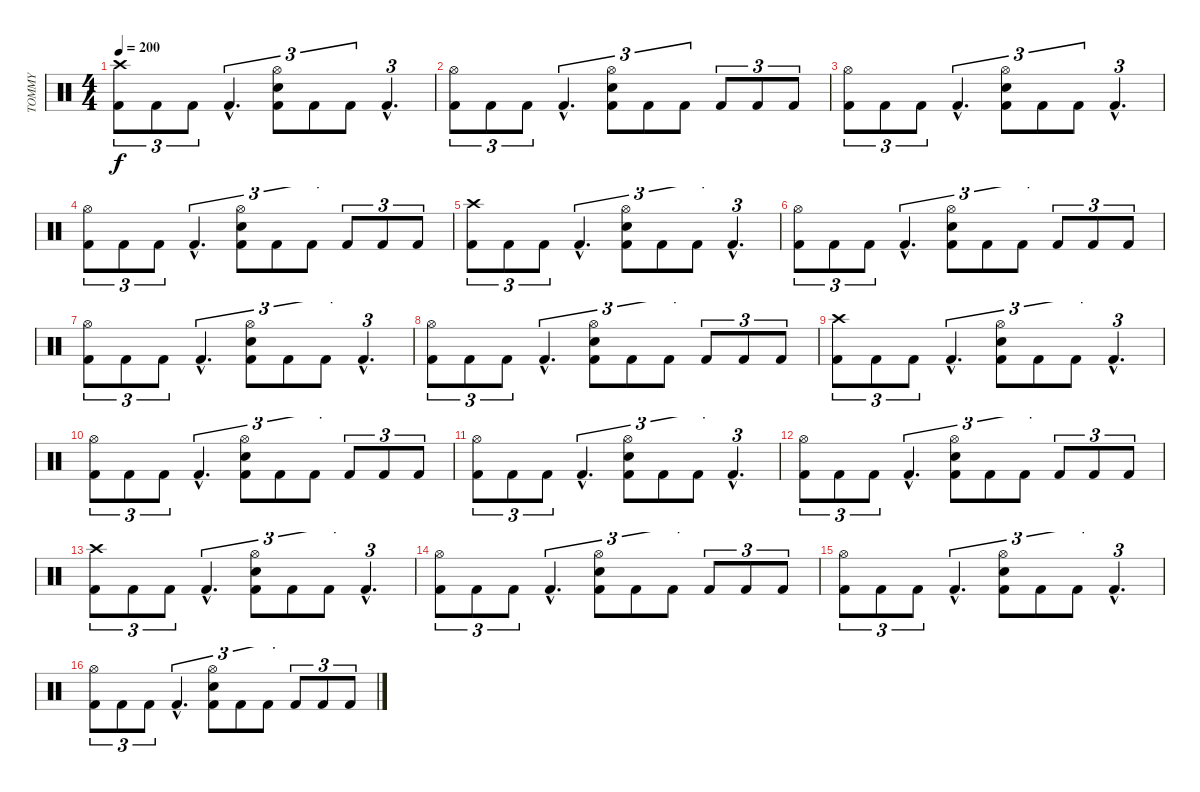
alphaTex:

\track ("TOMMY" "TOMMY") {instrument percussion}
\staff {score}
\articulation defaults
\ts (4 4)
\tempo 200
\clef neutral
\ks c
("Kick (hit) 2" "Crash high (hit)").8{tu (3 2) dy f} "Kick (hit) 2".8{tu (3 2)} "Kick (hit) 2".8{tu (3 2)} "Kick (hit) 2"{hac}.4{d tu (3 2)} ("Snare (hit) 2" "Kick (hit) 2" "Hi-Hat (open)").8{tu (3 2)} "Kick (hit) 2".8{tu (3 2)} "Kick (hit) 2".8{tu (3 2)} "Kick (hit) 2"{hac}.4{d tu (3 2)} |
("Kick (hit) 2" "Hi-Hat (open)").8{tu (3 2)} "Kick (hit) 2".8{tu (3 2)} "Kick (hit) 2".8{tu (3 2)} "Kick (hit) 2"{hac}.4{d tu (3 2)} ("Snare (hit) 2" "Kick (hit) 2" "Hi-Hat (open)").8{tu (3 2)} "Kick (hit) 2".8{tu (3 2)} "Kick (hit) 2".8{tu (3 2)} "Kick (hit) 2".8{tu (3 2)} "Kick (hit) 2".8{tu (3 2)} "Kick (hit) 2".8{tu (3 2)} |
("Kick (hit) 2" "Hi-Hat (open)").8{tu (3 2)} "Kick (hit) 2".8{tu (3 2)} "Kick (hit) 2".8{tu (3 2)} "Kick (hit) 2"{hac}.4{d tu (3 2)} ("Snare (hit) 2" "Kick (hit) 2" "Hi-Hat (open)").8{tu (3 2)} "Kick (hit) 2".8{tu (3 2)} "Kick (hit) 2".8{tu (3 2)} "Kick (hit) 2"{hac}.4{d tu (3 2)} |
("Kick (hit) 2" "Hi-Hat (open)").8{tu (3 2)} "Kick (hit) 2".8{tu (3 2)} "Kick (hit) 2".8{tu (3 2)} "Kick (hit) 2"{hac}.4{d tu (3 2)} ("Snare (hit) 2" "Kick (hit) 2" "Hi-Hat (open)").8{tu (3 2)} "Kick (hit) 2".8{tu (3 2)} "Kick (hit) 2".8{tu (3 2)} "Kick (hit) 2".8{tu (3 2)} "Kick (hit) 2".8{tu (3 2)} "Kick (hit) 2".8{tu (3 2)} |
("Kick (hit) 2" "Crash high (hit)").8{tu (3 2)} "Kick (hit) 2".8{tu (3 2)} "Kick (hit) 2".8{tu (3 2)} "Kick (hit) 2"{hac}.4{d tu (3 2)} ("Snare (hit) 2" "Kick (hit) 2" "Hi-Hat (open)").8{tu (3 2)} "Kick (hit) 2".8{tu (3 2)} "Kick (hit) 2".8{tu (3 2)} "Kick (hit) 2"{hac}.4{d tu (3 2)} |
("Kick (hit) 2" "Hi-Hat (open)").8{tu (3 2)} "Kick (hit) 2".8{tu (3 2)} "Kick (hit) 2".8{tu (3 2)} "Kick (hit) 2"{hac}.4{d tu (3 2)} ("Snare (hit) 2" "Kick (hit) 2" "Hi-Hat (open)").8{tu (3 2)} "Kick (hit) 2".8{tu (3 2)} "Kick (hit) 2".8{tu (3 2)} "Kick (hit) 2".8{tu (3 2)} "Kick (hit) 2".8{tu (3 2)} "Kick (hit) 2".8{tu (3 2)} |
("Kick (hit) 2" "Hi-Hat (open)").8{tu (3 2)} "Kick (hit) 2".8{tu (3 2)} "Kick (hit) 2".8{tu (3 2)} "Kick (hit) 2"{hac}.4{d tu (3 2)} ("Snare (hit) 2" "Kick (hit) 2" "Hi-Hat (open)").8{tu (3 2)} "Kick (hit) 2".8{tu (3 2)} "Kick (hit) 2".8{tu (3 2)} "Kick (hit) 2"{hac}.4{d tu (3 2)} |
("Kick (hit) 2" "Hi-Hat (open)").8{tu (3 2)} "Kick (hit) 2".8{tu (3 2)} "Kick (hit) 2".8{tu (3 2)} "Kick (hit) 2"{hac}.4{d tu (3 2)} ("Snare (hit) 2" "Kick (hit) 2" "Hi-Hat (open)").8{tu (3 2)} "Kick (hit) 2".8{tu (3 2)} "Kick (hit) 2".8{tu (3 2)} "Kick (hit) 2".8{tu (3 2)} "Kick (hit) 2".8{tu (3 2)} "Kick (hit) 2".8{tu (3 2)} |
("Kick (hit) 2" "Crash high (hit)").8{tu (3 2)} "Kick (hit) 2".8{tu (3 2)} "Kick (hit) 2".8{tu (3 2)} "Kick (hit) 2"{hac}.4{d tu (3 2)} ("Snare (hit) 2" "Kick (hit) 2" "Hi-Hat (open)").8{tu (3 2)} "Kick (hit) 2".8{tu (3 2)} "Kick (hit) 2".8{tu (3 2)} "Kick (hit) 2"{hac}.4{d tu (3 2)} |
("Kick (hit) 2" "Hi-Hat (open)").8{tu (3 2)} "Kick (hit) 2".8{tu (3 2)} "Kick (hit) 2".8{tu (3 2)} "Kick (hit) 2"{hac}.4{d tu (3 2)} ("Snare (hit) 2" "Kick (hit) 2" "Hi-Hat (open)").8{tu (3 2)} "Kick (hit) 2".8{tu (3 2)} "Kick (hit) 2".8{tu (3 2)} "Kick (hit) 2".8{tu (3 2)} "Kick (hit) 2".8{tu (3 2)} "Kick (hit) 2".8{tu (3 2)} |
("Kick (hit) 2" "Hi-Hat (open)").8{tu (3 2)} "Kick (hit) 2".8{tu (3 2)} "Kick (hit) 2".8{tu (3 2)} "Kick (hit) 2"{hac}.4{d tu (3 2)} ("Snare (hit) 2" "Kick (hit) 2" "Hi-Hat (open)").8{tu (3 2)} "Kick (hit) 2".8{tu (3 2)} "Kick (hit) 2".8{tu (3 2)} "Kick (hit) 2"{hac}.4{d tu (3 2)} |
("Kick (hit) 2" "Hi-Hat (open)").8{tu (3 2)} "Kick (hit) 2".8{tu (3 2)} "Kick (hit) 2".8{tu (3 2)} "Kick (hit) 2"{hac}.4{d tu (3 2)} ("Snare (hit) 2" "Kick (hit) 2" "Hi-Hat (open)").8{tu (3 2)} "Kick (hit) 2".8{tu (3 2)} "Kick (hit) 2".8{tu (3 2)} "Kick (hit) 2".8{tu (3 2)} "Kick (hit) 2".8{tu (3 2)} "Kick (hit) 2".8{tu (3 2)} |
("Kick (hit) 2" "Crash high (hit)").8{tu (3 2)} "Kick (hit) 2".8{tu (3 2)} "Kick (hit) 2".8{tu (3 2)} "Kick (hit) 2"{hac}.4{d tu (3 2)} ("Snare (hit) 2" "Kick (hit) 2" "Hi-Hat (open)").8{tu (3 2)} "Kick (hit) 2".8{tu (3 2)} "Kick (hit) 2".8{tu (3 2)} "Kick (hit) 2"{hac}.4{d tu (3 2)} |
("Kick (hit) 2" "Hi-Hat (open)").8{tu (3 2)} "Kick (hit) 2".8{tu (3 2)} "Kick (hit) 2".8{tu (3 2)} "Kick (hit) 2"{hac}.4{d tu (3 2)} ("Snare (hit) 2" "Kick (hit) 2" "Hi-Hat (open)").8{tu (3 2)} "Kick (hit) 2".8{tu (3 2)} "Kick (hit) 2".8{tu (3 2)} "Kick (hit) 2".8{tu (3 2)} "Kick (hit) 2".8{tu (3 2)} "Kick (hit) 2".8{tu (3 2)} |
("Kick (hit) 2" "Hi-Hat (open)").8{tu (3 2)} "Kick (hit) 2".8{tu (3 2)} "Kick (hit) 2".8{tu (3 2)} "Kick (hit) 2"{hac}.4{d tu (3 2)} ("Snare (hit) 2" "Kick (hit) 2" "Hi-Hat (open)").8{tu (3 2)} "Kick (hit) 2".8{tu (3 2)} "Kick (hit) 2".8{tu (3 2)} "Kick (hit) 2"{hac}.4{d tu (3 2)} |
("Kick (hit) 2" "Hi-Hat (open)").8{tu (3 2)} "Kick (hit) 2".8{tu (3 2)} "Kick (hit) 2".8{tu (3 2)} "Kick (hit) 2"{hac}.4{d tu (3 2)} ("Snare (hit) 2" "Kick (hit) 2" "Hi-Hat (open)").8{tu (3 2)} "Kick (hit) 2".8{tu (3 2)} "Kick (hit) 2".8{tu (3 2)} "Kick (hit) 2".8{tu (3 2)} "Kick (hit) 2".8{tu (3 2)} "Kick (hit) 2".8{tu (3 2)}
